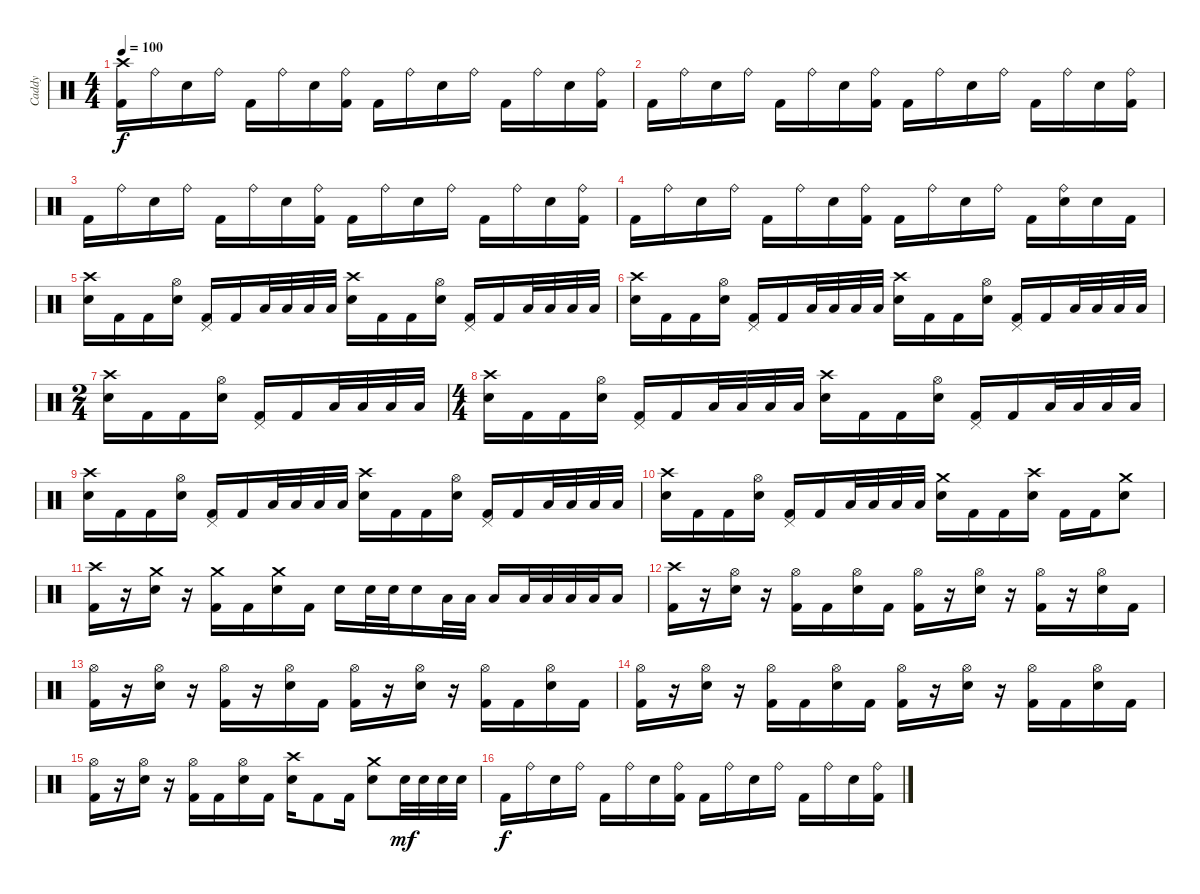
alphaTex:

\track ("Caddy" "Caddy") {instrument percussion}
\staff {score}
\articulation defaults
\ts (4 4)
\tempo 100
\clef neutral
\ks c
("Crash high (hit)" "Kick (hit) 2").16{dy f} "Ride (bell)".16 "Electric Snare (hit)".16 "Ride (bell)".16 "Kick (hit) 2".16 "Ride (bell)".16 "Electric Snare (hit)".16 ("Ride (bell)" "Kick (hit) 2").16 "Kick (hit) 2".16 "Ride (bell)".16 "Electric Snare (hit)".16 "Ride (bell)".16 "Kick (hit) 2".16 "Ride (bell)".16 "Electric Snare (hit)".16 ("Ride (bell)" "Kick (hit) 2").16 |
"Kick (hit) 2".16 "Ride (bell)".16 "Electric Snare (hit)".16 "Ride (bell)".16 "Kick (hit) 2".16 "Ride (bell)".16 "Electric Snare (hit)".16 ("Ride (bell)" "Kick (hit) 2").16 "Kick (hit) 2".16 "Ride (bell)".16 "Electric Snare (hit)".16 "Ride (bell)".16 "Kick (hit) 2".16 "Ride (bell)".16 "Electric Snare (hit)".16 ("Ride (bell)" "Kick (hit) 2").16 |
"Kick (hit) 2".16 "Ride (bell)".16 "Electric Snare (hit)".16 "Ride (bell)".16 "Kick (hit) 2".16 "Ride (bell)".16 "Electric Snare (hit)".16 ("Ride (bell)" "Kick (hit) 2").16 "Kick (hit) 2".16 "Ride (bell)".16 "Electric Snare (hit)".16 "Ride (bell)".16 "Kick (hit) 2".16 "Ride (bell)".16 "Electric Snare (hit)".16 ("Ride (bell)" "Kick (hit) 2").16 |
"Kick (hit) 2".16 "Ride (bell)".16 "Electric Snare (hit)".16 "Ride (bell)".16 "Kick (hit) 2".16 "Ride (bell)".16 "Electric Snare (hit)".16 ("Ride (bell)" "Kick (hit) 2").16 "Kick (hit) 2".16 "Ride (bell)".16 "Electric Snare (hit)".16 "Ride (bell)".16 "Kick (hit) 2".16 ("Ride (bell)" "Electric Snare (hit)").16 "Electric Snare (hit)".16 "Kick (hit) 2".16 |
("Crash high (hit)" "Electric Snare (hit)").16 "Kick (hit) 2".16 "Kick (hit) 2".16 ("Hi-Hat (open)" "Electric Snare (hit)").16 ("Pedal Hi-Hat (hit)" "Kick (hit) 2").16 "Kick (hit) 2".16 "Low Tom (hit)".32 "Low Tom (hit)".32 "Low Floor Tom (hit)".32 "Low Floor Tom (hit)".32 ("Crash high (hit)" "Electric Snare (hit)").16 "Kick (hit) 2".16 "Kick (hit) 2".16 ("Hi-Hat (open)" "Electric Snare (hit)").16 ("Pedal Hi-Hat (hit)" "Kick (hit) 2").16 "Kick (hit) 2".16 "Low Tom (hit)".32 "Low Tom (hit)".32 "Low Floor Tom (hit)".32 "Low Floor Tom (hit)".32 |
("Crash high (hit)" "Electric Snare (hit)").16 "Kick (hit) 2".16 "Kick (hit) 2".16 ("Hi-Hat (open)" "Electric Snare (hit)").16 ("Pedal Hi-Hat (hit)" "Kick (hit) 2").16 "Kick (hit) 2".16 "Low Tom (hit)".32 "Low Tom (hit)".32 "Low Floor Tom (hit)".32 "Low Floor Tom (hit)".32 ("Crash high (hit)" "Electric Snare (hit)").16 "Kick (hit) 2".16 "Kick (hit) 2".16 ("Hi-Hat (open)" "Electric Snare (hit)").16 ("Pedal Hi-Hat (hit)" "Kick (hit) 2").16 "Kick (hit) 2".16 "Low Tom (hit)".32 "Low Tom (hit)".32 "Low Floor Tom (hit)".32 "Low Floor Tom (hit)".32 |
\ts (2 4)
("Crash high (hit)" "Electric Snare (hit)").16 "Kick (hit) 2".16 "Kick (hit) 2".16 ("Hi-Hat (open)" "Electric Snare (hit)").16 ("Pedal Hi-Hat (hit)" "Kick (hit) 2").16 "Kick (hit) 2".16 "Low Tom (hit)".32 "Low Tom (hit)".32 "Low Floor Tom (hit)".32 "Low Floor Tom (hit)".32 |
\ts (4 4)
("Crash high (hit)" "Electric Snare (hit)").16 "Kick (hit) 2".16 "Kick (hit) 2".16 ("Hi-Hat (open)" "Electric Snare (hit)").16 ("Pedal Hi-Hat (hit)" "Kick (hit) 2").16 "Kick (hit) 2".16 "Low Tom (hit)".32 "Low Tom (hit)".32 "Low Floor Tom (hit)".32 "Low Floor Tom (hit)".32 ("Crash high (hit)" "Electric Snare (hit)").16 "Kick (hit) 2".16 "Kick (hit) 2".16 ("Hi-Hat (open)" "Electric Snare (hit)").16 ("Pedal Hi-Hat (hit)" "Kick (hit) 2").16 "Kick (hit) 2".16 "Low Tom (hit)".32 "Low Tom (hit)".32 "Low Floor Tom (hit)".32 "Low Floor Tom (hit)".32 |
("Crash high (hit)" "Electric Snare (hit)").16 "Kick (hit) 2".16 "Kick (hit) 2".16 ("Hi-Hat (open)" "Electric Snare (hit)").16 ("Pedal Hi-Hat (hit)" "Kick (hit) 2").16 "Kick (hit) 2".16 "Low Tom (hit)".32 "Low Tom (hit)".32 "Low Floor Tom (hit)".32 "Low Floor Tom (hit)".32 ("Crash high (hit)" "Electric Snare (hit)").16 "Kick (hit) 2".16 "Kick (hit) 2".16 ("Hi-Hat (open)" "Electric Snare (hit)").16 ("Pedal Hi-Hat (hit)" "Kick (hit) 2").16 "Kick (hit) 2".16 "Low Tom (hit)".32 "Low Tom (hit)".32 "Low Floor Tom (hit)".32 "Low Floor Tom (hit)".32 |
("Crash high (hit)" "Electric Snare (hit)").16 "Kick (hit) 2".16 "Kick (hit) 2".16 ("Hi-Hat (open)" "Electric Snare (hit)").16 ("Pedal Hi-Hat (hit)" "Kick (hit) 2").16 "Kick (hit) 2".16 "Low Tom (hit)".32 "Low Tom (hit)".32 "Low Floor Tom (hit)".32 "Low Floor Tom (hit)".32 ("Crash medium (hit)" "Electric Snare (hit)").16 "Kick (hit) 2".16 "Kick (hit) 2".16 ("Crash high (hit)" "Electric Snare (hit)").16 "Kick (hit) 2".16 "Kick (hit) 2".16 ("Crash medium (hit)" "Electric Snare (hit)").8 |
("Crash high (hit)" "Kick (hit) 2").16 r.16 ("Crash medium (hit)" "Electric Snare (hit)").16 r.16 ("Crash medium (hit)" "Kick (hit) 2").16 "Kick (hit) 2".16 ("Crash medium (hit)" "Electric Snare (hit)").16 "Kick (hit) 2".16 "Electric Snare (hit)".16 "Electric Snare (hit)".32 "Electric Snare (hit)".32 "Electric Snare (hit)".16 "Low Tom (hit)".32 "Low Tom (hit)".32 "Low Tom (hit)".16 "Low Floor Tom (hit)".32 "Low Floor Tom (hit)".32 "Low Floor Tom (hit)".32 "Low Floor Tom (hit)".32 "Low Floor Tom (hit)".16 |
("Crash high (hit)" "Kick (hit) 2").16 r.16 ("Hi-Hat (open)" "Electric Snare (hit)").16 r.16 ("Hi-Hat (open)" "Kick (hit) 2").16 "Kick (hit) 2".16 ("Hi-Hat (open)" "Electric Snare (hit)").16 "Kick (hit) 2".16 ("Hi-Hat (open)" "Kick (hit) 2").16 r.16 ("Hi-Hat (open)" "Electric Snare (hit)").16 r.16 ("Hi-Hat (open)" "Kick (hit) 2").16 r.16 ("Hi-Hat (open)" "Electric Snare (hit)").16 "Kick (hit) 2".16 |
("Hi-Hat (open)" "Kick (hit) 2").16 r.16 ("Hi-Hat (open)" "Electric Snare (hit)").16 r.16 ("Hi-Hat (open)" "Kick (hit) 2").16 r.16 ("Hi-Hat (open)" "Electric Snare (hit)").16 "Kick (hit) 2".16 ("Hi-Hat (open)" "Kick (hit) 2").16 r.16 ("Hi-Hat (open)" "Electric Snare (hit)").16 r.16 ("Hi-Hat (open)" "Kick (hit) 2").16 "Kick (hit) 2".16 ("Hi-Hat (open)" "Electric Snare (hit)").16 "Kick (hit) 2".16 |
("Hi-Hat (open)" "Kick (hit) 2").16 r.16 ("Hi-Hat (open)" "Electric Snare (hit)").16 r.16 ("Hi-Hat (open)" "Kick (hit) 2").16 "Kick (hit) 2".16 ("Hi-Hat (open)" "Electric Snare (hit)").16 "Kick (hit) 2".16 ("Hi-Hat (open)" "Kick (hit) 2").16 r.16 ("Hi-Hat (open)" "Electric Snare (hit)").16 r.16 ("Hi-Hat (open)" "Kick (hit) 2").16 "Kick (hit) 2".16 ("Hi-Hat (open)" "Electric Snare (hit)").16 "Kick (hit) 2".16 |
("Hi-Hat (open)" "Kick (hit) 2").16 r.16 ("Hi-Hat (open)" "Electric Snare (hit)").16 r.16 ("Hi-Hat (open)" "Kick (hit) 2").16 "Kick (hit) 2".16 ("Hi-Hat (open)" "Electric Snare (hit)").16 "Kick (hit) 2".16 ("Crash high (hit)" "Electric Snare (hit)").16 "Kick (hit) 2".8 "Kick (hit) 2".16 ("Crash medium (hit)" "Electric Snare (hit)").8 "Electric Snare (hit)".32{dy mf} "Electric Snare (hit)".32 "Electric Snare (hit)".32 "Electric Snare (hit)".32 |
"Kick (hit) 2".16{dy f} "Ride (bell)".16 "Electric Snare (hit)".16 "Ride (bell)".16 "Kick (hit) 2".16 "Ride (bell)".16 "Electric Snare (hit)".16 ("Ride (bell)" "Kick (hit) 2").16 "Kick (hit) 2".16 "Ride (bell)".16 "Electric Snare (hit)".16 "Ride (bell)".16 "Kick (hit) 2".16 "Ride (bell)".16 "Electric Snare (hit)".16 ("Ride (bell)" "Kick (hit) 2").16
